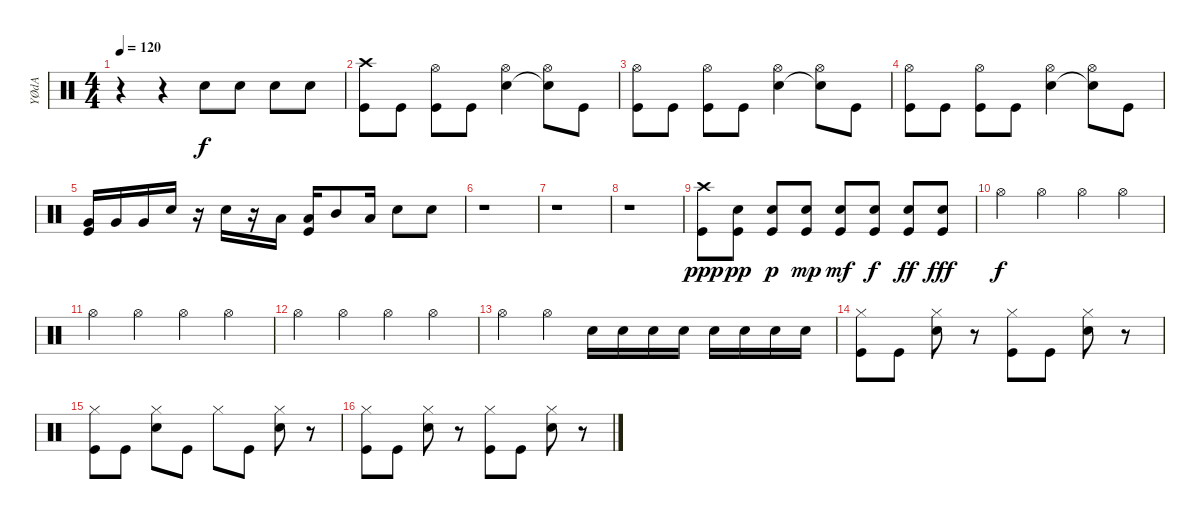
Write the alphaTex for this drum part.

\track ("YØdA" "YØdA") {instrument percussion}
\staff {score}
\articulation defaults
\ts (4 4)
\tempo 120
\clef neutral
\ks c
r.4{dy f} r.4 "Snare (hit) 2".8 "Snare (hit) 2".8 "Snare (hit) 2".8 "Snare (hit) 2".8 |
("Crash high (hit)" "Kick (hit)").8 "Kick (hit)".8 ("Hi-Hat (open)" "Kick (hit)").8 "Kick (hit)".8 ("Hi-Hat (open)" "Electric Snare (hit)").4 ("Hi-Hat (open)" "Electric Snare (hit)"{t}).8 "Kick (hit)".8 |
("Hi-Hat (open)" "Kick (hit)").8 "Kick (hit)".8 ("Hi-Hat (open)" "Kick (hit)").8 "Kick (hit)".8 ("Hi-Hat (open)" "Electric Snare (hit)").4 ("Hi-Hat (open)" "Electric Snare (hit)"{t}).8 "Kick (hit)".8 |
("Hi-Hat (open)" "Kick (hit)").8 "Kick (hit)".8 ("Hi-Hat (open)" "Kick (hit)").8 "Kick (hit)".8 ("Hi-Hat (open)" "Electric Snare (hit)").4 ("Hi-Hat (open)" "Electric Snare (hit)"{t}).8 "Kick (hit)".8 |
("Very Low Tom (hit)" "Kick (hit)").16 "Very Low Tom (hit)".16 "Very Low Tom (hit)".16 "Electric Snare (hit)".16 r.16 "Electric Snare (hit)".16 r.16 "Low Tom (hit)".16 ("Low Tom (hit)" "Kick (hit)").16 "Mid Tom (hit)".8 "Low Tom (hit)".16 "Electric Snare (hit)".8 "Electric Snare (hit)".8 |
r.1 |
r.1 |
r.1 |
("Crash high (hit)" "Kick (hit)").8{dy ppp} ("Electric Snare (hit)" "Kick (hit)").8{dy pp} ("Electric Snare (hit)" "Kick (hit)").8{dy p} ("Electric Snare (hit)" "Kick (hit)").8{dy mp} ("Electric Snare (hit)" "Kick (hit)").8{dy mf} ("Electric Snare (hit)" "Kick (hit)").8{dy f} ("Electric Snare (hit)" "Kick (hit)").8{dy ff} ("Electric Snare (hit)" "Kick (hit)").8{dy fff} |
"Hi-Hat (open)".4{dy f} "Hi-Hat (open)".4 "Hi-Hat (open)".4 "Hi-Hat (open)".4 |
"Hi-Hat (open)".4 "Hi-Hat (open)".4 "Hi-Hat (open)".4 "Hi-Hat (open)".4 |
"Hi-Hat (open)".4 "Hi-Hat (open)".4 "Hi-Hat (open)".4 "Hi-Hat (open)".4 |
"Hi-Hat (open)".4 "Hi-Hat (open)".4 "Electric Snare (hit)".16 "Electric Snare (hit)".16 "Electric Snare (hit)".16 "Electric Snare (hit)".16 "Electric Snare (hit)".16 "Electric Snare (hit)".16 "Electric Snare (hit)".16 "Electric Snare (hit)".16 |
("Hi-Hat (closed)" "Kick (hit)").8 "Kick (hit)".8 ("Hi-Hat (closed)" "Electric Snare (hit)").8 r.8 ("Hi-Hat (closed)" "Kick (hit)").8 "Kick (hit)".8 ("Hi-Hat (closed)" "Electric Snare (hit)").8 r.8 |
("Hi-Hat (closed)" "Kick (hit)").8 "Kick (hit)".8 ("Hi-Hat (closed)" "Electric Snare (hit)").8 "Kick (hit)".8 "Hi-Hat (closed)".8 "Kick (hit)".8 ("Hi-Hat (closed)" "Electric Snare (hit)").8 r.8 |
("Hi-Hat (closed)" "Kick (hit)").8 "Kick (hit)".8 ("Hi-Hat (closed)" "Electric Snare (hit)").8 r.8 ("Hi-Hat (closed)" "Kick (hit)").8 "Kick (hit)".8 ("Hi-Hat (closed)" "Electric Snare (hit)").8 r.8
